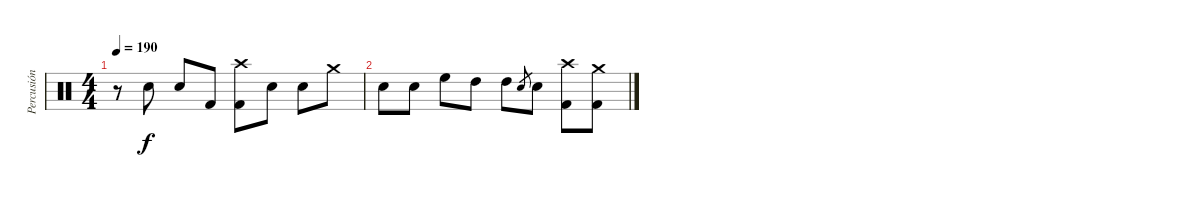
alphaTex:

\track ("Percusión" "Percusión") {instrument percussion}
\staff {score}
\articulation defaults
\ts (4 4)
\tempo 190
\clef neutral
\ks c
r.8{dy f} "Snare (hit) 2".8 "Snare (hit) 2".8 "Kick (hit) 2".8 ("Crash high (hit)" "Kick (hit) 2").8 "Snare (hit) 2".8 "Snare (hit) 2".8 "Crash medium (hit)".8 |
"Snare (hit) 2".8 "Snare (hit) 2".8 "High Floor Tom (hit)".8 "High Tom (hit)".8 "High Tom (hit)".8 "Snare (hit) 2".8{gr} "Snare (hit) 2".8 ("Crash high (hit)" "Kick (hit) 2").8 ("Crash medium (hit)" "Kick (hit) 2").8
